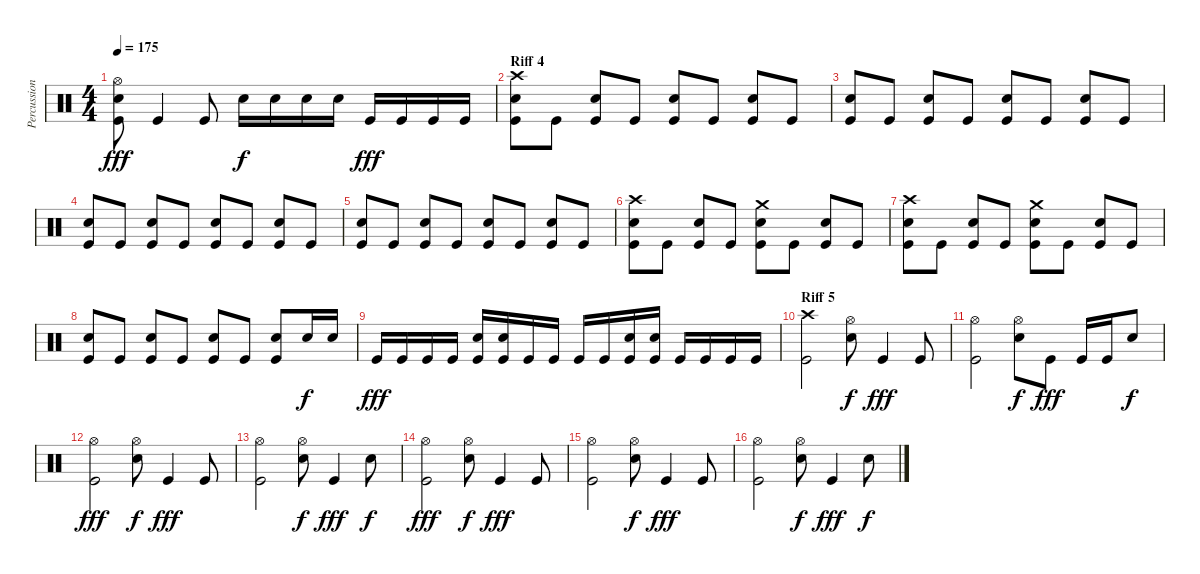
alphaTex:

\track ("Percussions" "Percussion") {instrument percussion}
\staff {score}
\articulation defaults
\ts (4 4)
\tempo 175
\clef neutral
\ks c
("Hi-Hat (open)" "Electric Snare (hit)" "Kick (hit)").8{dy fff} "Kick (hit)".4 "Kick (hit)".8 "Electric Snare (hit)".16{dy f} "Electric Snare (hit)".16 "Electric Snare (hit)".16 "Electric Snare (hit)".16 "Kick (hit)".16{dy fff} "Kick (hit)".16 "Kick (hit)".16 "Kick (hit)".16 |
\section ("" "Riff 4")
("Crash high (hit)" "Electric Snare (hit)" "Kick (hit)").8 "Kick (hit)".8 ("Electric Snare (hit)" "Kick (hit)").8 "Kick (hit)".8 ("Electric Snare (hit)" "Kick (hit)").8 "Kick (hit)".8 ("Electric Snare (hit)" "Kick (hit)").8 "Kick (hit)".8 |
("Electric Snare (hit)" "Kick (hit)").8 "Kick (hit)".8 ("Electric Snare (hit)" "Kick (hit)").8 "Kick (hit)".8 ("Electric Snare (hit)" "Kick (hit)").8 "Kick (hit)".8 ("Electric Snare (hit)" "Kick (hit)").8 "Kick (hit)".8 |
("Electric Snare (hit)" "Kick (hit)").8 "Kick (hit)".8 ("Electric Snare (hit)" "Kick (hit)").8 "Kick (hit)".8 ("Electric Snare (hit)" "Kick (hit)").8 "Kick (hit)".8 ("Electric Snare (hit)" "Kick (hit)").8 "Kick (hit)".8 |
("Electric Snare (hit)" "Kick (hit)").8 "Kick (hit)".8 ("Electric Snare (hit)" "Kick (hit)").8 "Kick (hit)".8 ("Electric Snare (hit)" "Kick (hit)").8 "Kick (hit)".8 ("Electric Snare (hit)" "Kick (hit)").8 "Kick (hit)".8 |
("Crash high (hit)" "Electric Snare (hit)" "Kick (hit)").8 "Kick (hit)".8 ("Electric Snare (hit)" "Kick (hit)").8 "Kick (hit)".8 ("Crash medium (hit)" "Electric Snare (hit)" "Kick (hit)").8 "Kick (hit)".8 ("Electric Snare (hit)" "Kick (hit)").8 "Kick (hit)".8 |
("Crash high (hit)" "Electric Snare (hit)" "Kick (hit)").8 "Kick (hit)".8 ("Electric Snare (hit)" "Kick (hit)").8 "Kick (hit)".8 ("Crash medium (hit)" "Electric Snare (hit)" "Kick (hit)").8 "Kick (hit)".8 ("Electric Snare (hit)" "Kick (hit)").8 "Kick (hit)".8 |
("Electric Snare (hit)" "Kick (hit)").8 "Kick (hit)".8 ("Electric Snare (hit)" "Kick (hit)").8 "Kick (hit)".8 ("Electric Snare (hit)" "Kick (hit)").8 "Kick (hit)".8 ("Electric Snare (hit)" "Kick (hit)").8 "Snare (hit) 2".16{dy f} "Snare (hit) 2".16 |
"Kick (hit)".16{dy fff} "Kick (hit)".16 "Kick (hit)".16 "Kick (hit)".16 ("Snare (hit) 2" "Kick (hit)").16 ("Snare (hit) 2" "Kick (hit)").16 "Kick (hit)".16 "Kick (hit)".16 "Kick (hit)".16 "Kick (hit)".16 ("Electric Snare (hit)" "Kick (hit)").16 ("Electric Snare (hit)" "Kick (hit)").16 "Kick (hit)".16 "Kick (hit)".16 "Kick (hit)".16 "Kick (hit)".16 |
\section ("" "Riff 5")
("Crash high (hit)" "Kick (hit)").2 ("Hi-Hat (open)" "Electric Snare (hit)").8{dy f} "Kick (hit)".4{dy fff} "Kick (hit)".8 |
("Hi-Hat (open)" "Kick (hit)").2 ("Hi-Hat (open)" "Electric Snare (hit)").8{dy f} "Kick (hit)".8{dy fff} "Kick (hit)".16 "Kick (hit)".16 "Electric Snare (hit)".8{dy f} |
("Hi-Hat (open)" "Kick (hit)").2{dy fff} ("Hi-Hat (open)" "Electric Snare (hit)").8{dy f} "Kick (hit)".4{dy fff} "Kick (hit)".8 |
("Hi-Hat (open)" "Kick (hit)").2 ("Hi-Hat (open)" "Electric Snare (hit)").8{dy f} "Kick (hit)".4{dy fff} "Electric Snare (hit)".8{dy f} |
("Hi-Hat (open)" "Kick (hit)").2{dy fff} ("Hi-Hat (open)" "Electric Snare (hit)").8{dy f} "Kick (hit)".4{dy fff} "Kick (hit)".8 |
("Hi-Hat (open)" "Kick (hit)").2 ("Hi-Hat (open)" "Electric Snare (hit)").8{dy f} "Kick (hit)".4{dy fff} "Kick (hit)".8 |
("Hi-Hat (open)" "Kick (hit)").2 ("Hi-Hat (open)" "Electric Snare (hit)").8{dy f} "Kick (hit)".4{dy fff} "Electric Snare (hit)".8{dy f}
